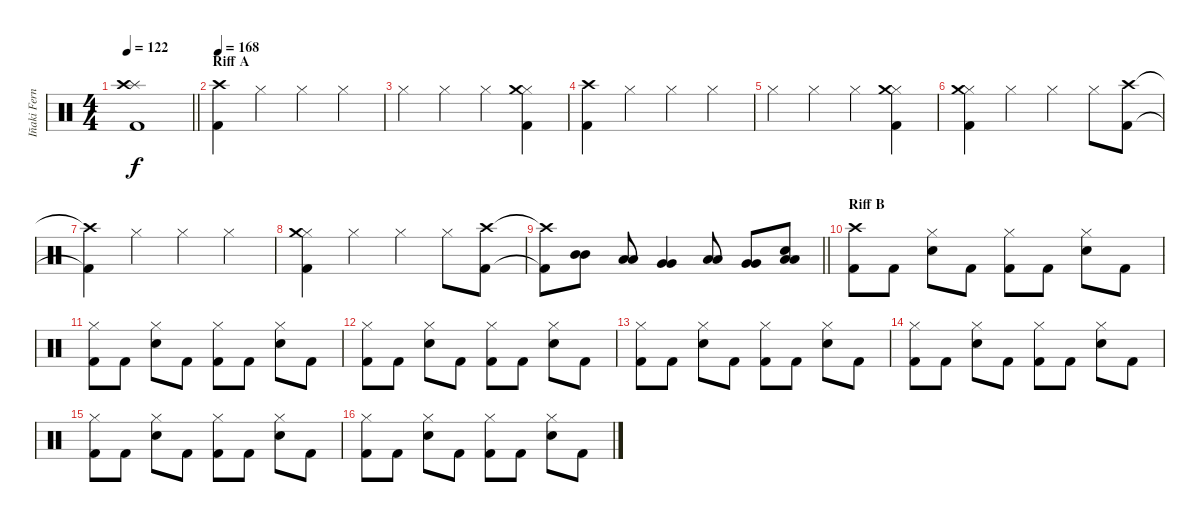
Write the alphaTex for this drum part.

\track ("Iñaki Fernández" "Iñaki Fern") {instrument percussion}
\staff {score}
\articulation defaults
\ts (4 4)
\tempo 122
\clef neutral
\barLineRight lightlight
\ks c
("Splash (hit)" "Crash high (hit)" "Kick (hit) 2").1{dy f} |
\section ("" "Riff A")
\tempo 168
("Crash high (hit)" "Kick (hit) 2").4 "Hi-Hat (closed)".4 "Hi-Hat (closed)".4 "Hi-Hat (closed)".4 |
"Hi-Hat (closed)".4 "Hi-Hat (closed)".4 "Hi-Hat (closed)".4 ("Hi-Hat (closed)" "Crash medium (hit)" "Kick (hit) 2").4 |
("Crash high (hit)" "Kick (hit) 2").4 "Hi-Hat (closed)".4 "Hi-Hat (closed)".4 "Hi-Hat (closed)".4 |
"Hi-Hat (closed)".4 "Hi-Hat (closed)".4 "Hi-Hat (closed)".4 ("Hi-Hat (closed)" "Crash medium (hit)" "Kick (hit) 2").4 |
("Hi-Hat (closed)" "Crash medium (hit)" "Kick (hit) 2").4 "Hi-Hat (closed)".4 "Hi-Hat (closed)".4 "Hi-Hat (closed)".8 ("Crash high (hit)" "Kick (hit) 2").8 |
("Crash high (hit)"{t} "Kick (hit) 2"{t}).4 "Hi-Hat (closed)".4 "Hi-Hat (closed)".4 "Hi-Hat (closed)".4 |
("Hi-Hat (closed)" "Crash medium (hit)" "Kick (hit) 2").4 "Hi-Hat (closed)".4 "Hi-Hat (closed)".4 "Hi-Hat (closed)".8 ("Crash high (hit)" "Kick (hit) 2").8 |
\barLineRight lightlight
("Crash high (hit)"{t} "Kick (hit) 2"{t}).8 ("Mid Tom (hit)" "Mid Tom (hit)").8 ("Low Tom (hit)" "Low Tom (hit)").8 ("Very Low Tom (hit)" "Very Low Tom (hit)").4 ("Low Tom (hit)" "Low Tom (hit)").8 ("Very Low Tom (hit)" "Very Low Tom (hit)").8 ("Snare (hit) 2" "Low Floor Tom (hit)" "Low Floor Tom (hit)").8 |
\section ("" "Riff B")
("Crash high (hit)" "Kick (hit) 2").8 "Kick (hit) 2".8 ("Hi-Hat (closed)" "Snare (hit) 2").8 "Kick (hit) 2".8 ("Hi-Hat (closed)" "Kick (hit) 2").8 "Kick (hit) 2".8 ("Hi-Hat (closed)" "Snare (hit) 2").8 "Kick (hit) 2".8 |
("Hi-Hat (closed)" "Kick (hit) 2").8 "Kick (hit) 2".8 ("Hi-Hat (closed)" "Snare (hit) 2").8 "Kick (hit) 2".8 ("Hi-Hat (closed)" "Kick (hit) 2").8 "Kick (hit) 2".8 ("Hi-Hat (closed)" "Snare (hit) 2").8 "Kick (hit) 2".8 |
("Hi-Hat (closed)" "Kick (hit) 2").8 "Kick (hit) 2".8 ("Hi-Hat (closed)" "Snare (hit) 2").8 "Kick (hit) 2".8 ("Hi-Hat (closed)" "Kick (hit) 2").8 "Kick (hit) 2".8 ("Hi-Hat (closed)" "Snare (hit) 2").8 "Kick (hit) 2".8 |
("Hi-Hat (closed)" "Kick (hit) 2").8 "Kick (hit) 2".8 ("Hi-Hat (closed)" "Snare (hit) 2").8 "Kick (hit) 2".8 ("Hi-Hat (closed)" "Kick (hit) 2").8 "Kick (hit) 2".8 ("Hi-Hat (closed)" "Snare (hit) 2").8 "Kick (hit) 2".8 |
("Hi-Hat (closed)" "Kick (hit) 2").8 "Kick (hit) 2".8 ("Hi-Hat (closed)" "Snare (hit) 2").8 "Kick (hit) 2".8 ("Hi-Hat (closed)" "Kick (hit) 2").8 "Kick (hit) 2".8 ("Hi-Hat (closed)" "Snare (hit) 2").8 "Kick (hit) 2".8 |
("Hi-Hat (closed)" "Kick (hit) 2").8 "Kick (hit) 2".8 ("Hi-Hat (closed)" "Snare (hit) 2").8 "Kick (hit) 2".8 ("Hi-Hat (closed)" "Kick (hit) 2").8 "Kick (hit) 2".8 ("Hi-Hat (closed)" "Snare (hit) 2").8 "Kick (hit) 2".8 |
("Hi-Hat (closed)" "Kick (hit) 2").8 "Kick (hit) 2".8 ("Hi-Hat (closed)" "Snare (hit) 2").8 "Kick (hit) 2".8 ("Hi-Hat (closed)" "Kick (hit) 2").8 "Kick (hit) 2".8 ("Hi-Hat (closed)" "Snare (hit) 2").8 "Kick (hit) 2".8
